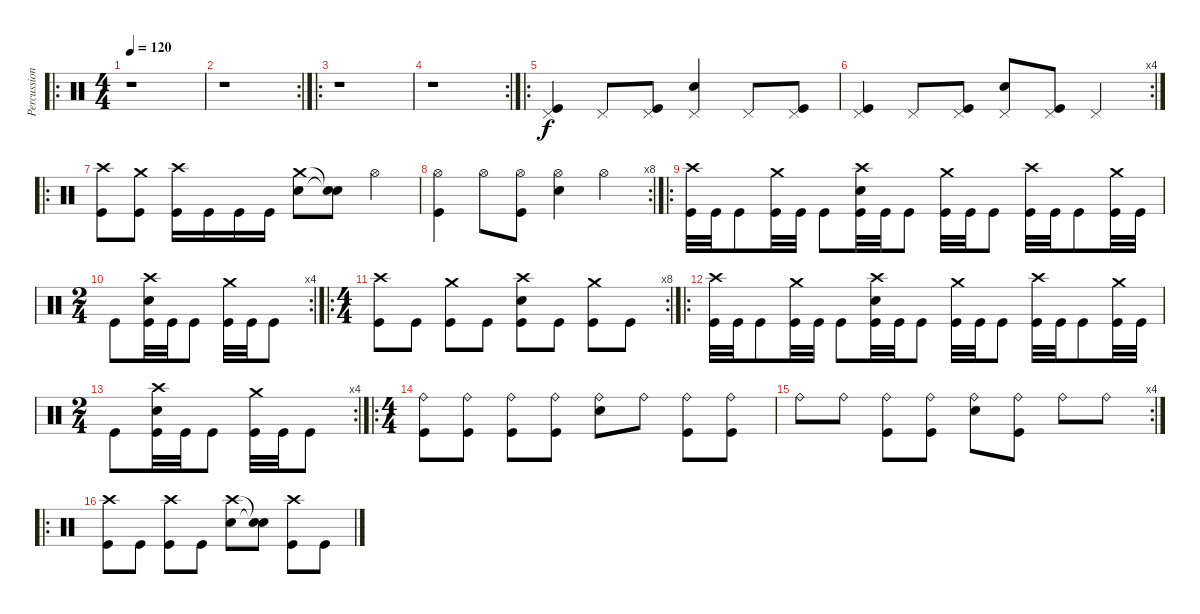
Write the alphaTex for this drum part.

\track ("Percussion" "Percussion") {instrument percussion}
\staff {score}
\articulation defaults
\ro
\ts (4 4)
\tempo 120
\clef neutral
\ks c
r.1{dy f} |
\rc 2
r.1 |
\ro
r.1 |
\rc 2
r.1 |
\ro
("Pedal Hi-Hat (hit)" "Kick (hit)").4 "Pedal Hi-Hat (hit)".8 ("Pedal Hi-Hat (hit)" "Kick (hit)").8 ("Pedal Hi-Hat (hit)" "Electric Snare (hit)").4 "Pedal Hi-Hat (hit)".8 ("Pedal Hi-Hat (hit)" "Kick (hit)").8 |
\rc 4
("Pedal Hi-Hat (hit)" "Kick (hit)").4 "Pedal Hi-Hat (hit)".8 ("Pedal Hi-Hat (hit)" "Kick (hit)").8 ("Pedal Hi-Hat (hit)" "Electric Snare (hit)").8 ("Pedal Hi-Hat (hit)" "Kick (hit)").8 "Pedal Hi-Hat (hit)".4 |
\ro
("Crash high (hit)" "Kick (hit)").8 ("Crash medium (hit)" "Kick (hit)").8 ("Crash high (hit)" "Kick (hit)").16 "Kick (hit)".16 "Kick (hit)".16 "Kick (hit)".16 ("Crash medium (hit)" "Electric Snare (hit)").8 ("Snare (hit)"{t} "Snare (hit)"{t}).8 "Hi-Hat (open)".4 |
\rc 8
("Hi-Hat (open)" "Kick (hit)").4 "Hi-Hat (open)".8 ("Hi-Hat (open)" "Kick (hit)").8 ("Hi-Hat (open)" "Electric Snare (hit)").4 "Hi-Hat (open)".4 |
\ro
("Crash high (hit)" "Kick (hit)").32 "Kick (hit)".32 "Kick (hit)".8 ("Crash medium (hit)" "Kick (hit)").32 "Kick (hit)".32 "Kick (hit)".8 ("Crash high (hit)" "Electric Snare (hit)" "Kick (hit)").32 "Kick (hit)".32 "Kick (hit)".8 ("Crash medium (hit)" "Kick (hit)").32 "Kick (hit)".32 "Kick (hit)".8 ("Crash high (hit)" "Kick (hit)").32 "Kick (hit)".32 "Kick (hit)".8 ("Crash medium (hit)" "Kick (hit)").32 "Kick (hit)".32 |
\rc 4
\ts (2 4)
"Kick (hit)".8 ("Crash high (hit)" "Electric Snare (hit)" "Kick (hit)").32 "Kick (hit)".32 "Kick (hit)".8 ("Crash medium (hit)" "Kick (hit)").32 "Kick (hit)".32 "Kick (hit)".8 |
\ro
\rc 8
\ts (4 4)
("Crash high (hit)" "Kick (hit)").8 "Kick (hit)".8 ("Crash medium (hit)" "Kick (hit)").8 "Kick (hit)".8 ("Crash high (hit)" "Electric Snare (hit)" "Kick (hit)").8 "Kick (hit)".8 ("Crash medium (hit)" "Kick (hit)").8 "Kick (hit)".8 |
\ro
("Crash high (hit)" "Kick (hit)").32 "Kick (hit)".32 "Kick (hit)".8 ("Crash medium (hit)" "Kick (hit)").32 "Kick (hit)".32 "Kick (hit)".8 ("Crash high (hit)" "Electric Snare (hit)" "Kick (hit)").32 "Kick (hit)".32 "Kick (hit)".8 ("Crash medium (hit)" "Kick (hit)").32 "Kick (hit)".32 "Kick (hit)".8 ("Crash high (hit)" "Kick (hit)").32 "Kick (hit)".32 "Kick (hit)".8 ("Crash medium (hit)" "Kick (hit)").32 "Kick (hit)".32 |
\rc 4
\ts (2 4)
"Kick (hit)".8 ("Crash high (hit)" "Electric Snare (hit)" "Kick (hit)").32 "Kick (hit)".32 "Kick (hit)".8 ("Crash medium (hit)" "Kick (hit)").32 "Kick (hit)".32 "Kick (hit)".8 |
\ro
\ts (4 4)
("Ride (bell)" "Kick (hit)").8 ("Ride (bell)" "Kick (hit)").8 ("Ride (bell)" "Kick (hit)").8 ("Ride (bell)" "Kick (hit)").8 ("Ride (bell)" "Electric Snare (hit)").8 "Ride (bell)".8 ("Ride (bell)" "Kick (hit)").8 ("Ride (bell)" "Kick (hit)").8 |
\rc 4 "Ride (bell)".8 "Ride (bell)".8
("Ride (bell)" "Kick (hit)").8 ("Ride (bell)" "Kick (hit)").8 ("Ride (bell)" "Electric Snare (hit)").8 ("Ride (bell)" "Kick (hit)").8 "Ride (bell)".8 "Ride (bell)".8 |
\ro
("Crash high (hit)" "Kick (hit)").8 "Kick (hit)".8 ("Crash high (hit)" "Kick (hit)").8 "Kick (hit)".8 ("Crash high (hit)" "Electric Snare (hit)").8 ("Snare (hit)"{t} "Snare (hit)"{t}).8 ("Crash high (hit)" "Kick (hit)").8 "Kick (hit)".8
